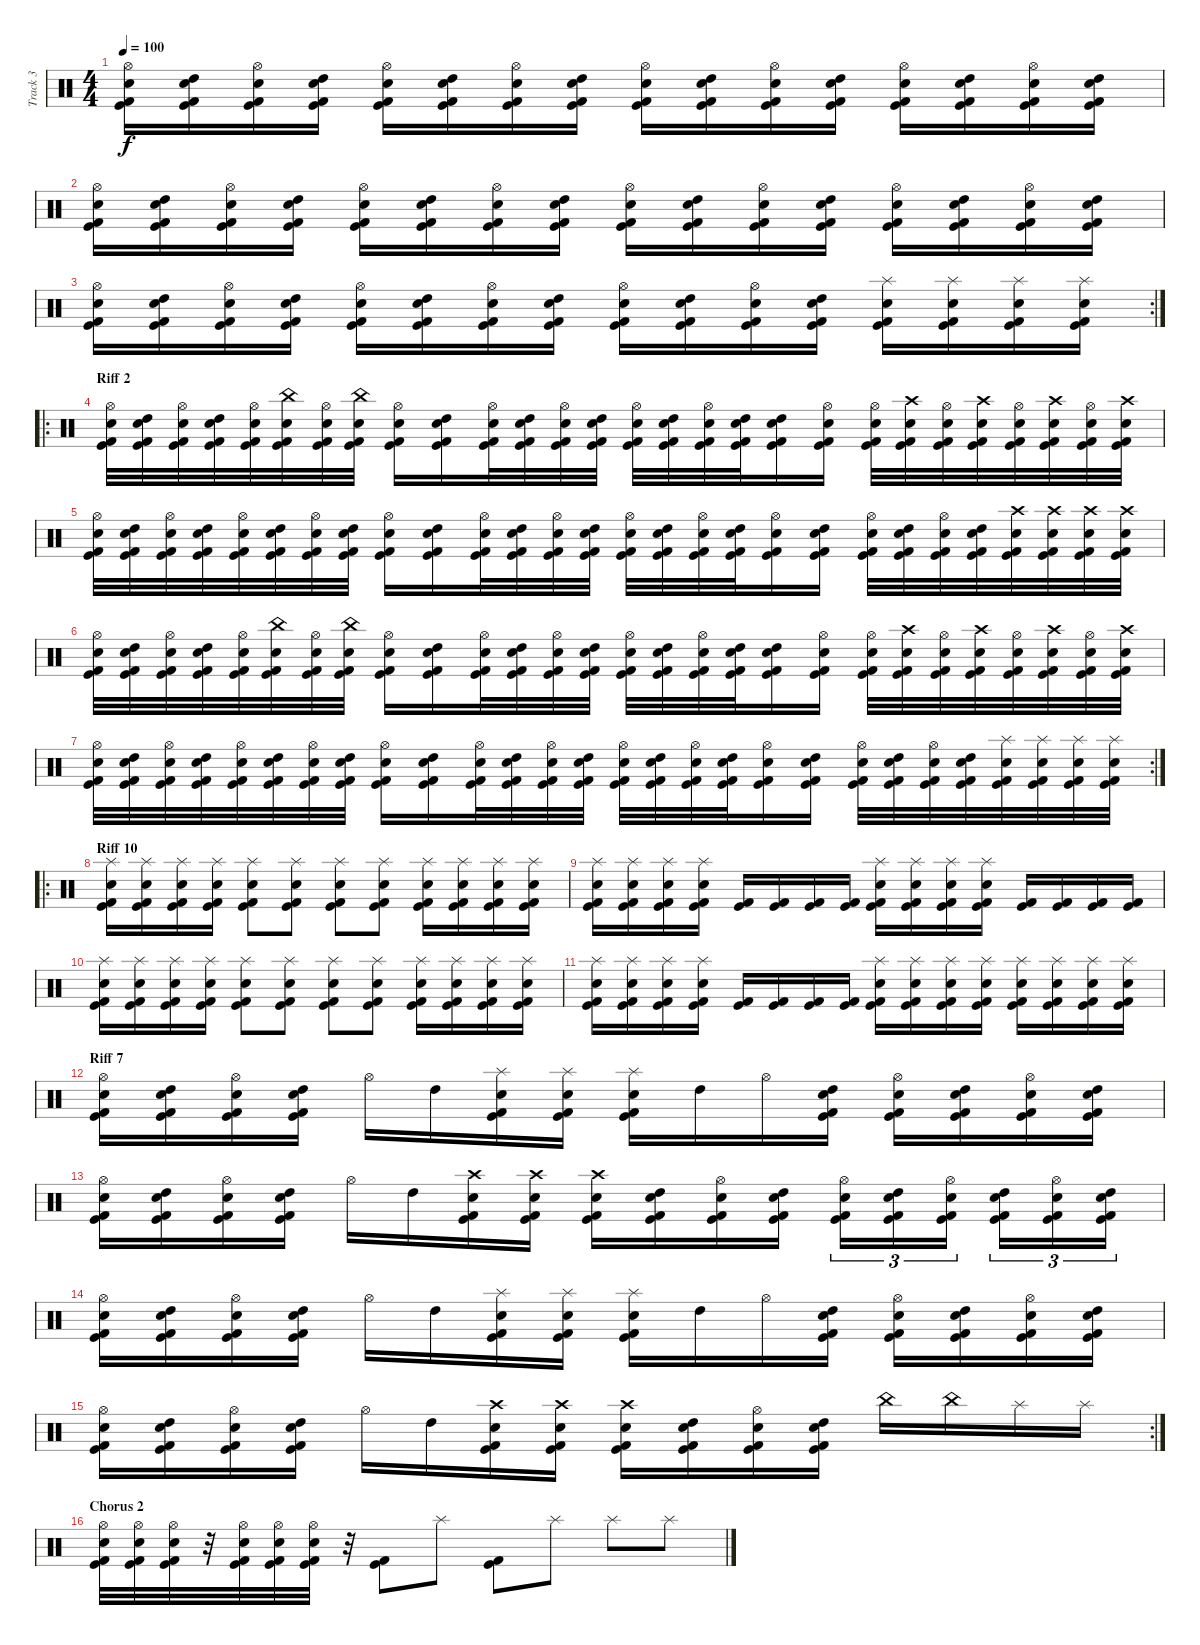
\track ("Track 3" "Track 3") {instrument percussion}
\staff {score}
\articulation defaults
\ts (4 4)
\tempo 100
\clef neutral
\ks c
("Hi-Hat (open)" "Snare (hit) 2" "Kick (hit) 2" "Kick (hit)").16{dy f} ("High Tom (hit)" "Snare (hit) 2" "Kick (hit) 2" "Kick (hit)").16 ("Hi-Hat (open)" "Snare (hit) 2" "Kick (hit) 2" "Kick (hit)").16 ("High Tom (hit)" "Snare (hit) 2" "Kick (hit) 2" "Kick (hit)").16 ("Hi-Hat (open)" "Snare (hit) 2" "Kick (hit) 2" "Kick (hit)").16 ("High Tom (hit)" "Snare (hit) 2" "Kick (hit) 2" "Kick (hit)").16 ("Hi-Hat (open)" "Snare (hit) 2" "Kick (hit) 2" "Kick (hit)").16 ("High Tom (hit)" "Snare (hit) 2" "Kick (hit) 2" "Kick (hit)").16 ("Hi-Hat (open)" "Snare (hit) 2" "Kick (hit) 2" "Kick (hit)").16 ("High Tom (hit)" "Snare (hit) 2" "Kick (hit) 2" "Kick (hit)").16 ("Hi-Hat (open)" "Snare (hit) 2" "Kick (hit) 2" "Kick (hit)").16 ("High Tom (hit)" "Snare (hit) 2" "Kick (hit) 2" "Kick (hit)").16 ("Hi-Hat (open)" "Snare (hit) 2" "Kick (hit) 2" "Kick (hit)").16 ("High Tom (hit)" "Snare (hit) 2" "Kick (hit) 2" "Kick (hit)").16 ("Hi-Hat (open)" "Snare (hit) 2" "Kick (hit) 2" "Kick (hit)").16 ("High Tom (hit)" "Snare (hit) 2" "Kick (hit) 2" "Kick (hit)").16 |
("Hi-Hat (open)" "Snare (hit) 2" "Kick (hit) 2" "Kick (hit)").16 ("High Tom (hit)" "Snare (hit) 2" "Kick (hit) 2" "Kick (hit)").16 ("Hi-Hat (open)" "Snare (hit) 2" "Kick (hit) 2" "Kick (hit)").16 ("High Tom (hit)" "Snare (hit) 2" "Kick (hit) 2" "Kick (hit)").16 ("Hi-Hat (open)" "Snare (hit) 2" "Kick (hit) 2" "Kick (hit)").16 ("High Tom (hit)" "Snare (hit) 2" "Kick (hit) 2" "Kick (hit)").16 ("Hi-Hat (open)" "Snare (hit) 2" "Kick (hit) 2" "Kick (hit)").16 ("High Tom (hit)" "Snare (hit) 2" "Kick (hit) 2" "Kick (hit)").16 ("Hi-Hat (open)" "Snare (hit) 2" "Kick (hit) 2" "Kick (hit)").16 ("High Tom (hit)" "Snare (hit) 2" "Kick (hit) 2" "Kick (hit)").16 ("Hi-Hat (open)" "Snare (hit) 2" "Kick (hit) 2" "Kick (hit)").16 ("High Tom (hit)" "Snare (hit) 2" "Kick (hit) 2" "Kick (hit)").16 ("Hi-Hat (open)" "Snare (hit) 2" "Kick (hit) 2" "Kick (hit)").16 ("High Tom (hit)" "Snare (hit) 2" "Kick (hit) 2" "Kick (hit)").16 ("Hi-Hat (open)" "Snare (hit) 2" "Kick (hit) 2" "Kick (hit)").16 ("High Tom (hit)" "Snare (hit) 2" "Kick (hit) 2" "Kick (hit)").16 |
\rc 2
("Hi-Hat (open)" "Snare (hit) 2" "Kick (hit) 2" "Kick (hit)").16 ("High Tom (hit)" "Snare (hit) 2" "Kick (hit) 2" "Kick (hit)").16 ("Hi-Hat (open)" "Snare (hit) 2" "Kick (hit) 2" "Kick (hit)").16 ("High Tom (hit)" "Snare (hit) 2" "Kick (hit) 2" "Kick (hit)").16 ("Hi-Hat (open)" "Snare (hit) 2" "Kick (hit) 2" "Kick (hit)").16 ("High Tom (hit)" "Snare (hit) 2" "Kick (hit) 2" "Kick (hit)").16 ("Hi-Hat (open)" "Snare (hit) 2" "Kick (hit) 2" "Kick (hit)").16 ("High Tom (hit)" "Snare (hit) 2" "Kick (hit) 2" "Kick (hit)").16 ("Hi-Hat (open)" "Snare (hit) 2" "Kick (hit) 2" "Kick (hit)").16 ("High Tom (hit)" "Snare (hit) 2" "Kick (hit) 2" "Kick (hit)").16 ("Hi-Hat (open)" "Snare (hit) 2" "Kick (hit) 2" "Kick (hit)").16 ("High Tom (hit)" "Snare (hit) 2" "Kick (hit) 2" "Kick (hit)").16 ("Splash (hit)" "Snare (hit) 2" "Kick (hit) 2" "Kick (hit)").16 ("Splash (hit)" "Snare (hit) 2" "Kick (hit) 2" "Kick (hit)").16 ("Splash (hit)" "Snare (hit) 2" "Kick (hit) 2" "Kick (hit)").16 ("Splash (hit)" "Snare (hit) 2" "Kick (hit) 2" "Kick (hit)").16 |
\ro
\section ("" "Riff 2")
("Hi-Hat (open)" "Snare (hit) 2" "Kick (hit) 2" "Kick (hit)").32 ("High Tom (hit)" "Snare (hit) 2" "Kick (hit) 2" "Kick (hit)").32 ("Hi-Hat (open)" "Snare (hit) 2" "Kick (hit) 2" "Kick (hit)").32 ("High Tom (hit)" "Snare (hit) 2" "Kick (hit) 2" "Kick (hit)").32 ("Hi-Hat (open)" "Snare (hit) 2" "Kick (hit) 2" "Kick (hit)").32 ("China (hit)" "Snare (hit) 2" "Kick (hit) 2" "Kick (hit)").32 ("Hi-Hat (open)" "Snare (hit) 2" "Kick (hit) 2" "Kick (hit)").32 ("China (hit)" "Snare (hit) 2" "Kick (hit) 2" "Kick (hit)").32 ("Hi-Hat (open)" "Snare (hit) 2" "Kick (hit) 2" "Kick (hit)").16 ("High Tom (hit)" "Snare (hit) 2" "Kick (hit) 2" "Kick (hit)").16 ("Hi-Hat (open)" "Snare (hit) 2" "Kick (hit) 2" "Kick (hit)").32 ("High Tom (hit)" "Snare (hit) 2" "Kick (hit) 2" "Kick (hit)").32 ("Hi-Hat (open)" "Snare (hit) 2" "Kick (hit) 2" "Kick (hit)").32 ("High Tom (hit)" "Snare (hit) 2" "Kick (hit) 2" "Kick (hit)").32 ("Hi-Hat (open)" "Snare (hit) 2" "Kick (hit) 2" "Kick (hit)").32 ("High Tom (hit)" "Snare (hit) 2" "Kick (hit) 2" "Kick (hit)").32 ("Hi-Hat (open)" "Snare (hit) 2" "Kick (hit) 2" "Kick (hit)").32 ("High Tom (hit)" "Snare (hit) 2" "Kick (hit) 2" "Kick (hit)").32 ("High Tom (hit)" "Snare (hit) 2" "Kick (hit) 2" "Kick (hit)").16 ("Hi-Hat (open)" "Snare (hit) 2" "Kick (hit) 2" "Kick (hit)").16 ("Hi-Hat (open)" "Snare (hit) 2" "Kick (hit) 2" "Kick (hit)").32 ("Crash high (hit)" "Snare (hit) 2" "Kick (hit) 2" "Kick (hit)").32 ("Hi-Hat (open)" "Snare (hit) 2" "Kick (hit) 2" "Kick (hit)").32 ("Crash high (hit)" "Snare (hit) 2" "Kick (hit) 2" "Kick (hit)").32 ("Hi-Hat (open)" "Snare (hit) 2" "Kick (hit) 2" "Kick (hit)").32 ("Crash high (hit)" "Snare (hit) 2" "Kick (hit) 2" "Kick (hit)").32 ("Hi-Hat (open)" "Snare (hit) 2" "Kick (hit) 2" "Kick (hit)").32 ("Crash high (hit)" "Snare (hit) 2" "Kick (hit) 2" "Kick (hit)").32 |
("Hi-Hat (open)" "Snare (hit) 2" "Kick (hit) 2" "Kick (hit)").32 ("High Tom (hit)" "Snare (hit) 2" "Kick (hit) 2" "Kick (hit)").32 ("Hi-Hat (open)" "Snare (hit) 2" "Kick (hit) 2" "Kick (hit)").32 ("High Tom (hit)" "Snare (hit) 2" "Kick (hit) 2" "Kick (hit)").32 ("Hi-Hat (open)" "Snare (hit) 2" "Kick (hit) 2" "Kick (hit)").32 ("High Tom (hit)" "Snare (hit) 2" "Kick (hit) 2" "Kick (hit)").32 ("Hi-Hat (open)" "Snare (hit) 2" "Kick (hit) 2" "Kick (hit)").32 ("High Tom (hit)" "Snare (hit) 2" "Kick (hit) 2" "Kick (hit)").32 ("Hi-Hat (open)" "Snare (hit) 2" "Kick (hit) 2" "Kick (hit)").16 ("High Tom (hit)" "Snare (hit) 2" "Kick (hit) 2" "Kick (hit)").16 ("Hi-Hat (open)" "Snare (hit) 2" "Kick (hit) 2" "Kick (hit)").32 ("High Tom (hit)" "Snare (hit) 2" "Kick (hit) 2" "Kick (hit)").32 ("Hi-Hat (open)" "Snare (hit) 2" "Kick (hit) 2" "Kick (hit)").32 ("High Tom (hit)" "Snare (hit) 2" "Kick (hit) 2" "Kick (hit)").32 ("Hi-Hat (open)" "Snare (hit) 2" "Kick (hit) 2" "Kick (hit)").32 ("High Tom (hit)" "Snare (hit) 2" "Kick (hit) 2" "Kick (hit)").32 ("Hi-Hat (open)" "Snare (hit) 2" "Kick (hit) 2" "Kick (hit)").32 ("High Tom (hit)" "Snare (hit) 2" "Kick (hit) 2" "Kick (hit)").32 ("Hi-Hat (open)" "Snare (hit) 2" "Kick (hit) 2" "Kick (hit)").16 ("High Tom (hit)" "Snare (hit) 2" "Kick (hit) 2" "Kick (hit)").16 ("Hi-Hat (open)" "Snare (hit) 2" "Kick (hit) 2" "Kick (hit)").32 ("High Tom (hit)" "Snare (hit) 2" "Kick (hit) 2" "Kick (hit)").32 ("Hi-Hat (open)" "Snare (hit) 2" "Kick (hit) 2" "Kick (hit)").32 ("High Tom (hit)" "Snare (hit) 2" "Kick (hit) 2" "Kick (hit)").32 ("Crash high (hit)" "Snare (hit) 2" "Kick (hit) 2" "Kick (hit)").32 ("Crash high (hit)" "Snare (hit) 2" "Kick (hit) 2" "Kick (hit)").32 ("Crash high (hit)" "Snare (hit) 2" "Kick (hit) 2" "Kick (hit)").32 ("Crash high (hit)" "Snare (hit) 2" "Kick (hit) 2" "Kick (hit)").32 |
("Hi-Hat (open)" "Snare (hit) 2" "Kick (hit) 2" "Kick (hit)").32 ("High Tom (hit)" "Snare (hit) 2" "Kick (hit) 2" "Kick (hit)").32 ("Hi-Hat (open)" "Snare (hit) 2" "Kick (hit) 2" "Kick (hit)").32 ("High Tom (hit)" "Snare (hit) 2" "Kick (hit) 2" "Kick (hit)").32 ("Hi-Hat (open)" "Snare (hit) 2" "Kick (hit) 2" "Kick (hit)").32 ("China (hit)" "Snare (hit) 2" "Kick (hit) 2" "Kick (hit)").32 ("Hi-Hat (open)" "Snare (hit) 2" "Kick (hit) 2" "Kick (hit)").32 ("China (hit)" "Snare (hit) 2" "Kick (hit) 2" "Kick (hit)").32 ("Hi-Hat (open)" "Snare (hit) 2" "Kick (hit) 2" "Kick (hit)").16 ("High Tom (hit)" "Snare (hit) 2" "Kick (hit) 2" "Kick (hit)").16 ("Hi-Hat (open)" "Snare (hit) 2" "Kick (hit) 2" "Kick (hit)").32 ("High Tom (hit)" "Snare (hit) 2" "Kick (hit) 2" "Kick (hit)").32 ("Hi-Hat (open)" "Snare (hit) 2" "Kick (hit) 2" "Kick (hit)").32 ("High Tom (hit)" "Snare (hit) 2" "Kick (hit) 2" "Kick (hit)").32 ("Hi-Hat (open)" "Snare (hit) 2" "Kick (hit) 2" "Kick (hit)").32 ("High Tom (hit)" "Snare (hit) 2" "Kick (hit) 2" "Kick (hit)").32 ("Hi-Hat (open)" "Snare (hit) 2" "Kick (hit) 2" "Kick (hit)").32 ("High Tom (hit)" "Snare (hit) 2" "Kick (hit) 2" "Kick (hit)").32 ("High Tom (hit)" "Snare (hit) 2" "Kick (hit) 2" "Kick (hit)").16 ("Hi-Hat (open)" "Snare (hit) 2" "Kick (hit) 2" "Kick (hit)").16 ("Hi-Hat (open)" "Snare (hit) 2" "Kick (hit) 2" "Kick (hit)").32 ("Crash high (hit)" "Snare (hit) 2" "Kick (hit) 2" "Kick (hit)").32 ("Hi-Hat (open)" "Snare (hit) 2" "Kick (hit) 2" "Kick (hit)").32 ("Crash high (hit)" "Snare (hit) 2" "Kick (hit) 2" "Kick (hit)").32 ("Hi-Hat (open)" "Snare (hit) 2" "Kick (hit) 2" "Kick (hit)").32 ("Crash high (hit)" "Snare (hit) 2" "Kick (hit) 2" "Kick (hit)").32 ("Hi-Hat (open)" "Snare (hit) 2" "Kick (hit) 2" "Kick (hit)").32 ("Crash high (hit)" "Snare (hit) 2" "Kick (hit) 2" "Kick (hit)").32 |
\rc 2
("Hi-Hat (open)" "Snare (hit) 2" "Kick (hit) 2" "Kick (hit)").32 ("High Tom (hit)" "Snare (hit) 2" "Kick (hit) 2" "Kick (hit)").32 ("Hi-Hat (open)" "Snare (hit) 2" "Kick (hit) 2" "Kick (hit)").32 ("High Tom (hit)" "Snare (hit) 2" "Kick (hit) 2" "Kick (hit)").32 ("Hi-Hat (open)" "Snare (hit) 2" "Kick (hit) 2" "Kick (hit)").32 ("High Tom (hit)" "Snare (hit) 2" "Kick (hit) 2" "Kick (hit)").32 ("Hi-Hat (open)" "Snare (hit) 2" "Kick (hit) 2" "Kick (hit)").32 ("High Tom (hit)" "Snare (hit) 2" "Kick (hit) 2" "Kick (hit)").32 ("Hi-Hat (open)" "Snare (hit) 2" "Kick (hit) 2" "Kick (hit)").16 ("High Tom (hit)" "Snare (hit) 2" "Kick (hit) 2" "Kick (hit)").16 ("Hi-Hat (open)" "Snare (hit) 2" "Kick (hit) 2" "Kick (hit)").32 ("High Tom (hit)" "Snare (hit) 2" "Kick (hit) 2" "Kick (hit)").32 ("Hi-Hat (open)" "Snare (hit) 2" "Kick (hit) 2" "Kick (hit)").32 ("High Tom (hit)" "Snare (hit) 2" "Kick (hit) 2" "Kick (hit)").32 ("Hi-Hat (open)" "Snare (hit) 2" "Kick (hit) 2" "Kick (hit)").32 ("High Tom (hit)" "Snare (hit) 2" "Kick (hit) 2" "Kick (hit)").32 ("Hi-Hat (open)" "Snare (hit) 2" "Kick (hit) 2" "Kick (hit)").32 ("High Tom (hit)" "Snare (hit) 2" "Kick (hit) 2" "Kick (hit)").32 ("Hi-Hat (open)" "Snare (hit) 2" "Kick (hit) 2" "Kick (hit)").16 ("High Tom (hit)" "Snare (hit) 2" "Kick (hit) 2" "Kick (hit)").16 ("Hi-Hat (open)" "Snare (hit) 2" "Kick (hit) 2" "Kick (hit)").32 ("High Tom (hit)" "Snare (hit) 2" "Kick (hit) 2" "Kick (hit)").32 ("Hi-Hat (open)" "Snare (hit) 2" "Kick (hit) 2" "Kick (hit)").32 ("High Tom (hit)" "Snare (hit) 2" "Kick (hit) 2" "Kick (hit)").32 ("Splash (hit)" "Snare (hit) 2" "Kick (hit) 2" "Kick (hit)").32 ("Splash (hit)" "Snare (hit) 2" "Kick (hit) 2" "Kick (hit)").32 ("Splash (hit)" "Snare (hit) 2" "Kick (hit) 2" "Kick (hit)").32 ("Splash (hit)" "Snare (hit) 2" "Kick (hit) 2" "Kick (hit)").32 |
\ro
\section ("" "Riff 10")
("Splash (hit)" "Snare (hit) 2" "Kick (hit) 2" "Kick (hit)").16 ("Splash (hit)" "Snare (hit) 2" "Kick (hit) 2" "Kick (hit)").16 ("Splash (hit)" "Snare (hit) 2" "Kick (hit) 2" "Kick (hit)").16 ("Splash (hit)" "Snare (hit) 2" "Kick (hit) 2" "Kick (hit)").16 ("Splash (hit)" "Snare (hit) 2" "Kick (hit) 2" "Kick (hit)").8 ("Splash (hit)" "Snare (hit) 2" "Kick (hit) 2" "Kick (hit)").8 ("Splash (hit)" "Snare (hit) 2" "Kick (hit) 2" "Kick (hit)").8 ("Splash (hit)" "Snare (hit) 2" "Kick (hit) 2" "Kick (hit)").8 ("Splash (hit)" "Snare (hit) 2" "Kick (hit) 2" "Kick (hit)").16 ("Splash (hit)" "Snare (hit) 2" "Kick (hit) 2" "Kick (hit)").16 ("Splash (hit)" "Snare (hit) 2" "Kick (hit) 2" "Kick (hit)").16 ("Splash (hit)" "Snare (hit) 2" "Kick (hit) 2" "Kick (hit)").16 |
("Splash (hit)" "Snare (hit) 2" "Kick (hit) 2" "Kick (hit)").16 ("Splash (hit)" "Snare (hit) 2" "Kick (hit) 2" "Kick (hit)").16 ("Splash (hit)" "Snare (hit) 2" "Kick (hit) 2" "Kick (hit)").16 ("Splash (hit)" "Snare (hit) 2" "Kick (hit) 2" "Kick (hit)").16 ("Kick (hit) 2" "Kick (hit)").16 ("Kick (hit) 2" "Kick (hit)").16 ("Kick (hit) 2" "Kick (hit)").16 ("Kick (hit) 2" "Kick (hit)").16 ("Splash (hit)" "Snare (hit) 2" "Kick (hit) 2" "Kick (hit)").16 ("Splash (hit)" "Snare (hit) 2" "Kick (hit) 2" "Kick (hit)").16 ("Splash (hit)" "Snare (hit) 2" "Kick (hit) 2" "Kick (hit)").16 ("Splash (hit)" "Snare (hit) 2" "Kick (hit) 2" "Kick (hit)").16 ("Kick (hit) 2" "Kick (hit)").16 ("Kick (hit) 2" "Kick (hit)").16 ("Kick (hit) 2" "Kick (hit)").16 ("Kick (hit) 2" "Kick (hit)").16 |
("Splash (hit)" "Snare (hit) 2" "Kick (hit) 2" "Kick (hit)").16 ("Splash (hit)" "Snare (hit) 2" "Kick (hit) 2" "Kick (hit)").16 ("Splash (hit)" "Snare (hit) 2" "Kick (hit) 2" "Kick (hit)").16 ("Splash (hit)" "Snare (hit) 2" "Kick (hit) 2" "Kick (hit)").16 ("Splash (hit)" "Snare (hit) 2" "Kick (hit) 2" "Kick (hit)").8 ("Splash (hit)" "Snare (hit) 2" "Kick (hit) 2" "Kick (hit)").8 ("Splash (hit)" "Snare (hit) 2" "Kick (hit) 2" "Kick (hit)").8 ("Splash (hit)" "Snare (hit) 2" "Kick (hit) 2" "Kick (hit)").8 ("Splash (hit)" "Snare (hit) 2" "Kick (hit) 2" "Kick (hit)").16 ("Splash (hit)" "Snare (hit) 2" "Kick (hit) 2" "Kick (hit)").16 ("Splash (hit)" "Snare (hit) 2" "Kick (hit) 2" "Kick (hit)").16 ("Splash (hit)" "Snare (hit) 2" "Kick (hit) 2" "Kick (hit)").16 |
("Splash (hit)" "Snare (hit) 2" "Kick (hit) 2" "Kick (hit)").16 ("Splash (hit)" "Snare (hit) 2" "Kick (hit) 2" "Kick (hit)").16 ("Splash (hit)" "Snare (hit) 2" "Kick (hit) 2" "Kick (hit)").16 ("Splash (hit)" "Snare (hit) 2" "Kick (hit) 2" "Kick (hit)").16 ("Kick (hit) 2" "Kick (hit)").16 ("Kick (hit) 2" "Kick (hit)").16 ("Kick (hit) 2" "Kick (hit)").16 ("Kick (hit) 2" "Kick (hit)").16 ("Splash (hit)" "Snare (hit) 2" "Kick (hit) 2" "Kick (hit)").16 ("Splash (hit)" "Snare (hit) 2" "Kick (hit) 2" "Kick (hit)").16 ("Splash (hit)" "Snare (hit) 2" "Kick (hit) 2" "Kick (hit)").16 ("Splash (hit)" "Snare (hit) 2" "Kick (hit) 2" "Kick (hit)").16 ("Splash (hit)" "Snare (hit) 2" "Kick (hit) 2" "Kick (hit)").16 ("Splash (hit)" "Snare (hit) 2" "Kick (hit) 2" "Kick (hit)").16 ("Splash (hit)" "Snare (hit) 2" "Kick (hit) 2" "Kick (hit)").16 ("Splash (hit)" "Snare (hit) 2" "Kick (hit) 2" "Kick (hit)").16 |
\section ("" "Riff 7")
("Hi-Hat (open)" "Snare (hit) 2" "Kick (hit) 2" "Kick (hit)").16 ("High Tom (hit)" "Snare (hit) 2" "Kick (hit) 2" "Kick (hit)").16 ("Hi-Hat (open)" "Snare (hit) 2" "Kick (hit) 2" "Kick (hit)").16 ("High Tom (hit)" "Snare (hit) 2" "Kick (hit) 2" "Kick (hit)").16 "Hi-Hat (open)".16 "High Tom (hit)".16 ("Splash (hit)" "Snare (hit) 2" "Kick (hit) 2" "Kick (hit)").16 ("Splash (hit)" "Snare (hit) 2" "Kick (hit) 2" "Kick (hit)").16 ("Splash (hit)" "Snare (hit) 2" "Kick (hit) 2" "Kick (hit)").16 "High Tom (hit)".16 "Hi-Hat (open)".16 ("High Tom (hit)" "Snare (hit) 2" "Kick (hit) 2" "Kick (hit)").16 ("Hi-Hat (open)" "Snare (hit) 2" "Kick (hit) 2" "Kick (hit)").16 ("High Tom (hit)" "Snare (hit) 2" "Kick (hit) 2" "Kick (hit)").16 ("Hi-Hat (open)" "Snare (hit) 2" "Kick (hit) 2" "Kick (hit)").16 ("High Tom (hit)" "Snare (hit) 2" "Kick (hit) 2" "Kick (hit)").16 |
("Hi-Hat (open)" "Snare (hit) 2" "Kick (hit) 2" "Kick (hit)").16 ("High Tom (hit)" "Snare (hit) 2" "Kick (hit) 2" "Kick (hit)").16 ("Hi-Hat (open)" "Snare (hit) 2" "Kick (hit) 2" "Kick (hit)").16 ("High Tom (hit)" "Snare (hit) 2" "Kick (hit) 2" "Kick (hit)").16 "Hi-Hat (open)".16 "High Tom (hit)".16 ("Crash high (hit)" "Snare (hit) 2" "Kick (hit) 2" "Kick (hit)").16 ("Crash high (hit)" "Snare (hit) 2" "Kick (hit) 2" "Kick (hit)").16 ("Crash high (hit)" "Snare (hit) 2" "Kick (hit) 2" "Kick (hit)").16 ("High Tom (hit)" "Snare (hit) 2" "Kick (hit) 2" "Kick (hit)").16 ("Hi-Hat (open)" "Snare (hit) 2" "Kick (hit) 2" "Kick (hit)").16 ("High Tom (hit)" "Snare (hit) 2" "Kick (hit) 2" "Kick (hit)").16 ("Hi-Hat (open)" "Snare (hit) 2" "Kick (hit) 2" "Kick (hit)").16{tu (3 2)} ("High Tom (hit)" "Snare (hit) 2" "Kick (hit) 2" "Kick (hit)").16{tu (3 2)} ("Hi-Hat (open)" "Snare (hit) 2" "Kick (hit) 2" "Kick (hit)").16{tu (3 2)} ("High Tom (hit)" "Snare (hit) 2" "Kick (hit) 2" "Kick (hit)").16{tu (3 2)} ("Hi-Hat (open)" "Snare (hit) 2" "Kick (hit) 2" "Kick (hit)").16{tu (3 2)} ("High Tom (hit)" "Snare (hit) 2" "Kick (hit) 2" "Kick (hit)").16{tu (3 2)} |
("Hi-Hat (open)" "Snare (hit) 2" "Kick (hit) 2" "Kick (hit)").16 ("High Tom (hit)" "Snare (hit) 2" "Kick (hit) 2" "Kick (hit)").16 ("Hi-Hat (open)" "Snare (hit) 2" "Kick (hit) 2" "Kick (hit)").16 ("High Tom (hit)" "Snare (hit) 2" "Kick (hit) 2" "Kick (hit)").16 "Hi-Hat (open)".16 "High Tom (hit)".16 ("Splash (hit)" "Snare (hit) 2" "Kick (hit) 2" "Kick (hit)").16 ("Splash (hit)" "Snare (hit) 2" "Kick (hit) 2" "Kick (hit)").16 ("Splash (hit)" "Snare (hit) 2" "Kick (hit) 2" "Kick (hit)").16 "High Tom (hit)".16 "Hi-Hat (open)".16 ("High Tom (hit)" "Snare (hit) 2" "Kick (hit) 2" "Kick (hit)").16 ("Hi-Hat (open)" "Snare (hit) 2" "Kick (hit) 2" "Kick (hit)").16 ("High Tom (hit)" "Snare (hit) 2" "Kick (hit) 2" "Kick (hit)").16 ("Hi-Hat (open)" "Snare (hit) 2" "Kick (hit) 2" "Kick (hit)").16 ("High Tom (hit)" "Snare (hit) 2" "Kick (hit) 2" "Kick (hit)").16 |
\rc 2
("Hi-Hat (open)" "Snare (hit) 2" "Kick (hit) 2" "Kick (hit)").16 ("High Tom (hit)" "Snare (hit) 2" "Kick (hit) 2" "Kick (hit)").16 ("Hi-Hat (open)" "Snare (hit) 2" "Kick (hit) 2" "Kick (hit)").16 ("High Tom (hit)" "Snare (hit) 2" "Kick (hit) 2" "Kick (hit)").16 "Hi-Hat (open)".16 "High Tom (hit)".16 ("Crash high (hit)" "Snare (hit) 2" "Kick (hit) 2" "Kick (hit)").16 ("Crash high (hit)" "Snare (hit) 2" "Kick (hit) 2" "Kick (hit)").16 ("Crash high (hit)" "Snare (hit) 2" "Kick (hit) 2" "Kick (hit)").16 ("High Tom (hit)" "Snare (hit) 2" "Kick (hit) 2" "Kick (hit)").16 ("Hi-Hat (open)" "Snare (hit) 2" "Kick (hit) 2" "Kick (hit)").16 ("High Tom (hit)" "Snare (hit) 2" "Kick (hit) 2" "Kick (hit)").16 "China (hit)".16 "China (hit)".16 "Splash (hit)".16 "Splash (hit)".16 |
\section ("" "Chorus 2")
("Hi-Hat (open)" "Snare (hit) 2" "Kick (hit) 2" "Kick (hit)").32 ("Hi-Hat (open)" "Snare (hit) 2" "Kick (hit) 2" "Kick (hit)").32 ("Hi-Hat (open)" "Snare (hit) 2" "Kick (hit) 2" "Kick (hit)").32 r.32 ("Hi-Hat (open)" "Snare (hit) 2" "Kick (hit) 2" "Kick (hit)").32 ("Hi-Hat (open)" "Snare (hit) 2" "Kick (hit) 2" "Kick (hit)").32 ("Hi-Hat (open)" "Snare (hit) 2" "Kick (hit) 2" "Kick (hit)").32 r.32 ("Kick (hit) 2" "Kick (hit)").8 "Splash (hit)".8 ("Kick (hit) 2" "Kick (hit)").8 "Splash (hit)".8 "Splash (hit)".8 "Splash (hit)".8
